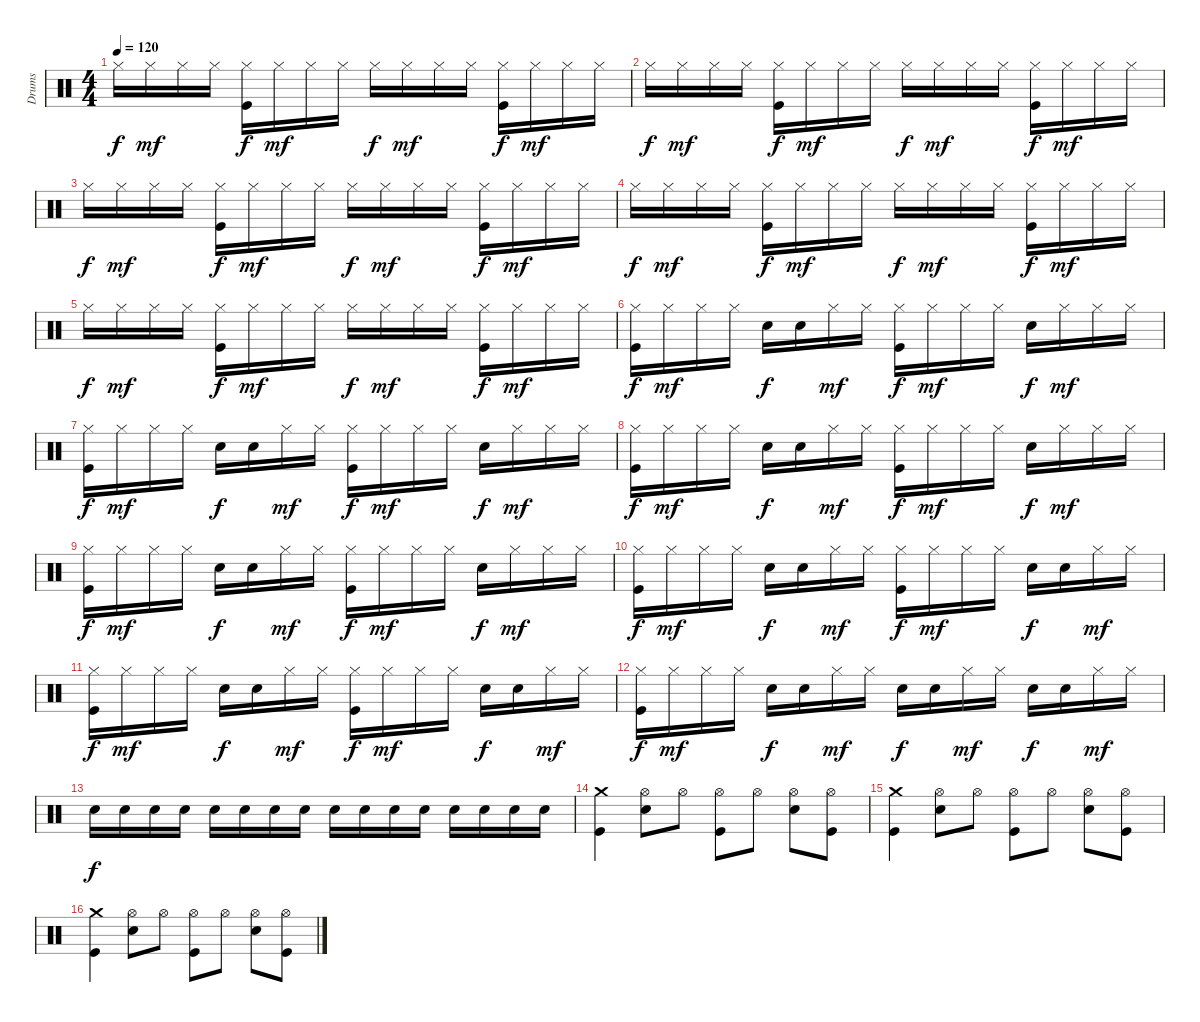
\track ("Drums" "Drums") {instrument percussion}
\staff {score}
\articulation defaults
\ts (4 4)
\tempo 120
\clef neutral
\ks c "Hi-Hat (closed)".16{dy f} "Hi-Hat (closed)".16{dy mf} "Hi-Hat (closed)".16 "Hi-Hat (closed)".16
("Kick (hit)" "Hi-Hat (closed)").16{dy f} "Hi-Hat (closed)".16{dy mf} "Hi-Hat (closed)".16 "Hi-Hat (closed)".16 "Hi-Hat (closed)".16{dy f} "Hi-Hat (closed)".16{dy mf} "Hi-Hat (closed)".16 "Hi-Hat (closed)".16 ("Kick (hit)" "Hi-Hat (closed)").16{dy f} "Hi-Hat (closed)".16{dy mf} "Hi-Hat (closed)".16 "Hi-Hat (closed)".16 |
"Hi-Hat (closed)".16{dy f} "Hi-Hat (closed)".16{dy mf} "Hi-Hat (closed)".16 "Hi-Hat (closed)".16 ("Kick (hit)" "Hi-Hat (closed)").16{dy f} "Hi-Hat (closed)".16{dy mf} "Hi-Hat (closed)".16 "Hi-Hat (closed)".16 "Hi-Hat (closed)".16{dy f} "Hi-Hat (closed)".16{dy mf} "Hi-Hat (closed)".16 "Hi-Hat (closed)".16 ("Kick (hit)" "Hi-Hat (closed)").16{dy f} "Hi-Hat (closed)".16{dy mf} "Hi-Hat (closed)".16 "Hi-Hat (closed)".16 |
"Hi-Hat (closed)".16{dy f} "Hi-Hat (closed)".16{dy mf} "Hi-Hat (closed)".16 "Hi-Hat (closed)".16 ("Kick (hit)" "Hi-Hat (closed)").16{dy f} "Hi-Hat (closed)".16{dy mf} "Hi-Hat (closed)".16 "Hi-Hat (closed)".16 "Hi-Hat (closed)".16{dy f} "Hi-Hat (closed)".16{dy mf} "Hi-Hat (closed)".16 "Hi-Hat (closed)".16 ("Kick (hit)" "Hi-Hat (closed)").16{dy f} "Hi-Hat (closed)".16{dy mf} "Hi-Hat (closed)".16 "Hi-Hat (closed)".16 |
"Hi-Hat (closed)".16{dy f} "Hi-Hat (closed)".16{dy mf} "Hi-Hat (closed)".16 "Hi-Hat (closed)".16 ("Kick (hit)" "Hi-Hat (closed)").16{dy f} "Hi-Hat (closed)".16{dy mf} "Hi-Hat (closed)".16 "Hi-Hat (closed)".16 "Hi-Hat (closed)".16{dy f} "Hi-Hat (closed)".16{dy mf} "Hi-Hat (closed)".16 "Hi-Hat (closed)".16 ("Kick (hit)" "Hi-Hat (closed)").16{dy f} "Hi-Hat (closed)".16{dy mf} "Hi-Hat (closed)".16 "Hi-Hat (closed)".16 |
"Hi-Hat (closed)".16{dy f} "Hi-Hat (closed)".16{dy mf} "Hi-Hat (closed)".16 "Hi-Hat (closed)".16 ("Kick (hit)" "Hi-Hat (closed)").16{dy f} "Hi-Hat (closed)".16{dy mf} "Hi-Hat (closed)".16 "Hi-Hat (closed)".16 "Hi-Hat (closed)".16{dy f} "Hi-Hat (closed)".16{dy mf} "Hi-Hat (closed)".16 "Hi-Hat (closed)".16 ("Kick (hit)" "Hi-Hat (closed)").16{dy f} "Hi-Hat (closed)".16{dy mf} "Hi-Hat (closed)".16 "Hi-Hat (closed)".16 |
("Kick (hit)" "Hi-Hat (closed)").16{dy f} "Hi-Hat (closed)".16{dy mf} "Hi-Hat (closed)".16 "Hi-Hat (closed)".16 "Electric Snare (hit)".16{dy f} "Electric Snare (hit)".16 "Hi-Hat (closed)".16{dy mf} "Hi-Hat (closed)".16 ("Kick (hit)" "Hi-Hat (closed)").16{dy f} "Hi-Hat (closed)".16{dy mf} "Hi-Hat (closed)".16 "Hi-Hat (closed)".16 "Electric Snare (hit)".16{dy f} "Hi-Hat (closed)".16{dy mf} "Hi-Hat (closed)".16 "Hi-Hat (closed)".16 |
("Kick (hit)" "Hi-Hat (closed)").16{dy f} "Hi-Hat (closed)".16{dy mf} "Hi-Hat (closed)".16 "Hi-Hat (closed)".16 "Electric Snare (hit)".16{dy f} "Electric Snare (hit)".16 "Hi-Hat (closed)".16{dy mf} "Hi-Hat (closed)".16 ("Kick (hit)" "Hi-Hat (closed)").16{dy f} "Hi-Hat (closed)".16{dy mf} "Hi-Hat (closed)".16 "Hi-Hat (closed)".16 "Electric Snare (hit)".16{dy f} "Hi-Hat (closed)".16{dy mf} "Hi-Hat (closed)".16 "Hi-Hat (closed)".16 |
("Kick (hit)" "Hi-Hat (closed)").16{dy f} "Hi-Hat (closed)".16{dy mf} "Hi-Hat (closed)".16 "Hi-Hat (closed)".16 "Electric Snare (hit)".16{dy f} "Electric Snare (hit)".16 "Hi-Hat (closed)".16{dy mf} "Hi-Hat (closed)".16 ("Kick (hit)" "Hi-Hat (closed)").16{dy f} "Hi-Hat (closed)".16{dy mf} "Hi-Hat (closed)".16 "Hi-Hat (closed)".16 "Electric Snare (hit)".16{dy f} "Hi-Hat (closed)".16{dy mf} "Hi-Hat (closed)".16 "Hi-Hat (closed)".16 |
("Kick (hit)" "Hi-Hat (closed)").16{dy f} "Hi-Hat (closed)".16{dy mf} "Hi-Hat (closed)".16 "Hi-Hat (closed)".16 "Electric Snare (hit)".16{dy f} "Electric Snare (hit)".16 "Hi-Hat (closed)".16{dy mf} "Hi-Hat (closed)".16 ("Kick (hit)" "Hi-Hat (closed)").16{dy f} "Hi-Hat (closed)".16{dy mf} "Hi-Hat (closed)".16 "Hi-Hat (closed)".16 "Electric Snare (hit)".16{dy f} "Hi-Hat (closed)".16{dy mf} "Hi-Hat (closed)".16 "Hi-Hat (closed)".16 |
("Kick (hit)" "Hi-Hat (closed)").16{dy f} "Hi-Hat (closed)".16{dy mf} "Hi-Hat (closed)".16 "Hi-Hat (closed)".16 "Electric Snare (hit)".16{dy f} "Electric Snare (hit)".16 "Hi-Hat (closed)".16{dy mf} "Hi-Hat (closed)".16 ("Kick (hit)" "Hi-Hat (closed)").16{dy f} "Hi-Hat (closed)".16{dy mf} "Hi-Hat (closed)".16 "Hi-Hat (closed)".16 "Electric Snare (hit)".16{dy f} "Electric Snare (hit)".16 "Hi-Hat (closed)".16{dy mf} "Hi-Hat (closed)".16 |
("Kick (hit)" "Hi-Hat (closed)").16{dy f} "Hi-Hat (closed)".16{dy mf} "Hi-Hat (closed)".16 "Hi-Hat (closed)".16 "Electric Snare (hit)".16{dy f} "Electric Snare (hit)".16 "Hi-Hat (closed)".16{dy mf} "Hi-Hat (closed)".16 ("Kick (hit)" "Hi-Hat (closed)").16{dy f} "Hi-Hat (closed)".16{dy mf} "Hi-Hat (closed)".16 "Hi-Hat (closed)".16 "Electric Snare (hit)".16{dy f} "Electric Snare (hit)".16 "Hi-Hat (closed)".16{dy mf} "Hi-Hat (closed)".16 |
("Kick (hit)" "Hi-Hat (closed)").16{dy f} "Hi-Hat (closed)".16{dy mf} "Hi-Hat (closed)".16 "Hi-Hat (closed)".16 "Electric Snare (hit)".16{dy f} "Electric Snare (hit)".16 "Hi-Hat (closed)".16{dy mf} "Hi-Hat (closed)".16 "Electric Snare (hit)".16{dy f} "Electric Snare (hit)".16 "Hi-Hat (closed)".16{dy mf} "Hi-Hat (closed)".16 "Electric Snare (hit)".16{dy f} "Electric Snare (hit)".16 "Hi-Hat (closed)".16{dy mf} "Hi-Hat (closed)".16 |
"Electric Snare (hit)".16{dy f} "Electric Snare (hit)".16 "Electric Snare (hit)".16 "Electric Snare (hit)".16 "Electric Snare (hit)".16 "Electric Snare (hit)".16 "Electric Snare (hit)".16 "Electric Snare (hit)".16 "Electric Snare (hit)".16 "Electric Snare (hit)".16 "Electric Snare (hit)".16 "Electric Snare (hit)".16 "Electric Snare (hit)".16 "Electric Snare (hit)".16 "Electric Snare (hit)".16 "Electric Snare (hit)".16 |
("Kick (hit)" "Crash medium (hit)").4 ("Electric Snare (hit)" "Hi-Hat (open)").8 "Hi-Hat (open)".8 ("Kick (hit)" "Hi-Hat (open)").8 "Hi-Hat (open)".8 ("Electric Snare (hit)" "Hi-Hat (open)").8 ("Kick (hit)" "Hi-Hat (open)").8 |
("Kick (hit)" "Crash medium (hit)").4 ("Electric Snare (hit)" "Hi-Hat (open)").8 "Hi-Hat (open)".8 ("Kick (hit)" "Hi-Hat (open)").8 "Hi-Hat (open)".8 ("Electric Snare (hit)" "Hi-Hat (open)").8 ("Kick (hit)" "Hi-Hat (open)").8 |
("Kick (hit)" "Crash medium (hit)").4 ("Electric Snare (hit)" "Hi-Hat (open)").8 "Hi-Hat (open)".8 ("Kick (hit)" "Hi-Hat (open)").8 "Hi-Hat (open)".8 ("Electric Snare (hit)" "Hi-Hat (open)").8 ("Kick (hit)" "Hi-Hat (open)").8
